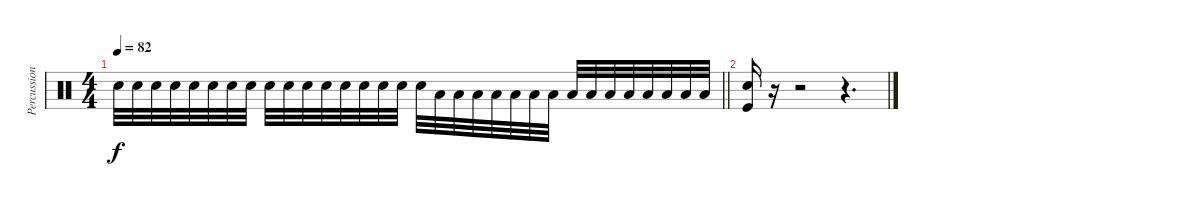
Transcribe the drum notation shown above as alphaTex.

\track ("Percussion" "Percussion") {instrument percussion}
\staff {score}
\articulation defaults
\ts (4 4)
\tempo 82
\clef neutral
\barLineRight lightlight
\ks c "Snare (hit) 2".32{dy f} "Snare (hit) 2".32 "Snare (hit) 2".32 "Snare (hit) 2".32 "Snare (hit) 2".32 "Snare (hit) 2".32 "Snare (hit) 2".32 "Snare (hit) 2".32 "Snare (hit) 2".32 "Snare (hit) 2".32 "Snare (hit) 2".32 "Snare (hit) 2".32 "Snare (hit) 2".32 "Snare (hit) 2".32 "Snare (hit) 2".32 "Snare (hit) 2".32 "Snare (hit) 2".32 "Low Tom (hit)".32 "Low Tom (hit)".32 "Low Tom (hit)".32 "Low Tom (hit)".32 "Low Tom (hit)".32 "Low Tom (hit)".32 "Low Tom (hit)".32 "Low Tom (hit)".32 "Low Tom (hit)".32 "Low Tom (hit)".32 "Low Tom (hit)".32 "Low Tom (hit)".32 "Low Tom (hit)".32 "Low Tom (hit)".32 "Low Tom (hit)".32
|
("Kick (hit)" "Snare (hit) 2").16 r.16 r.2 r.4{d}
